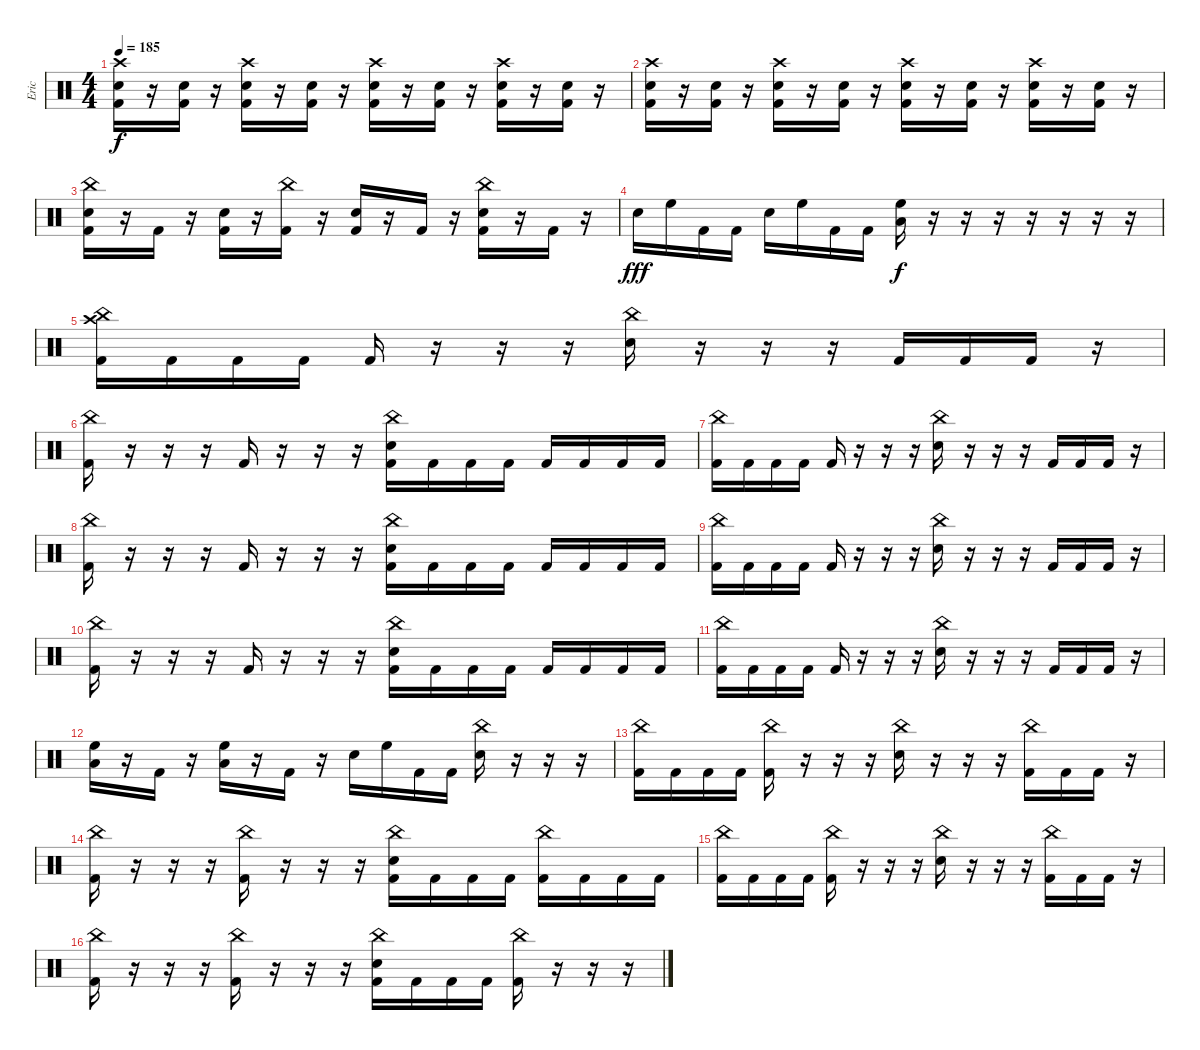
\track ("Eric" "Eric") {instrument percussion}
\staff {score}
\articulation defaults
\ts (4 4)
\tempo 185
\clef neutral
\ks c
("Crash high (hit)" "Electric Snare (hit)" "Kick (hit) 2").16{dy f} r.16 ("Electric Snare (hit)" "Kick (hit) 2").16 r.16 ("Crash high (hit)" "Electric Snare (hit)" "Kick (hit) 2").16 r.16 ("Electric Snare (hit)" "Kick (hit) 2").16 r.16 ("Crash high (hit)" "Electric Snare (hit)" "Kick (hit) 2").16 r.16 ("Electric Snare (hit)" "Kick (hit) 2").16 r.16 ("Crash high (hit)" "Electric Snare (hit)" "Kick (hit) 2").16 r.16 ("Electric Snare (hit)" "Kick (hit) 2").16 r.16 |
("Crash high (hit)" "Electric Snare (hit)" "Kick (hit) 2").16 r.16 ("Electric Snare (hit)" "Kick (hit) 2").16 r.16 ("Crash high (hit)" "Electric Snare (hit)" "Kick (hit) 2").16 r.16 ("Electric Snare (hit)" "Kick (hit) 2").16 r.16 ("Crash high (hit)" "Electric Snare (hit)" "Kick (hit) 2").16 r.16 ("Electric Snare (hit)" "Kick (hit) 2").16 r.16 ("Crash high (hit)" "Electric Snare (hit)" "Kick (hit) 2").16 r.16 ("Electric Snare (hit)" "Kick (hit) 2").16 r.16 |
("China (hit)" "Electric Snare (hit)" "Kick (hit) 2").16 r.16 "Kick (hit) 2".16 r.16 ("Electric Snare (hit)" "Kick (hit) 2").16 r.16 ("China (hit)" "Kick (hit) 2").16 r.16 ("Electric Snare (hit)" "Kick (hit) 2").16 r.16 "Kick (hit) 2".16 r.16 ("China (hit)" "Electric Snare (hit)" "Kick (hit) 2").16 r.16 "Kick (hit) 2".16 r.16 |
"Electric Snare (hit)".16{dy fff} "High Floor Tom (hit)".16 "Kick (hit) 2".16 "Kick (hit) 2".16 "Electric Snare (hit)".16 "High Floor Tom (hit)".16 "Kick (hit) 2".16 "Kick (hit) 2".16 ("High Floor Tom (hit)" "Low Floor Tom (hit)").16{dy f} r.16 r.16 r.16 r.16 r.16 r.16 r.16 |
("China (hit)" "Crash high (hit)" "Kick (hit) 2").16 "Kick (hit) 2".16 "Kick (hit) 2".16 "Kick (hit) 2".16 "Kick (hit) 2".16 r.16 r.16 r.16 ("China (hit)" "Electric Snare (hit)").16 r.16 r.16 r.16 "Kick (hit) 2".16 "Kick (hit) 2".16 "Kick (hit) 2".16 r.16 |
("China (hit)" "Kick (hit) 2").16 r.16 r.16 r.16 "Kick (hit) 2".16 r.16 r.16 r.16 ("China (hit)" "Electric Snare (hit)" "Kick (hit) 2").16 "Kick (hit) 2".16 "Kick (hit) 2".16 "Kick (hit) 2".16 "Kick (hit) 2".16 "Kick (hit) 2".16 "Kick (hit) 2".16 "Kick (hit) 2".16 |
("China (hit)" "Kick (hit) 2").16 "Kick (hit) 2".16 "Kick (hit) 2".16 "Kick (hit) 2".16 "Kick (hit) 2".16 r.16 r.16 r.16 ("China (hit)" "Electric Snare (hit)").16 r.16 r.16 r.16 "Kick (hit) 2".16 "Kick (hit) 2".16 "Kick (hit) 2".16 r.16 |
("China (hit)" "Kick (hit) 2").16 r.16 r.16 r.16 "Kick (hit) 2".16 r.16 r.16 r.16 ("China (hit)" "Electric Snare (hit)" "Kick (hit) 2").16 "Kick (hit) 2".16 "Kick (hit) 2".16 "Kick (hit) 2".16 "Kick (hit) 2".16 "Kick (hit) 2".16 "Kick (hit) 2".16 "Kick (hit) 2".16 |
("China (hit)" "Kick (hit) 2").16 "Kick (hit) 2".16 "Kick (hit) 2".16 "Kick (hit) 2".16 "Kick (hit) 2".16 r.16 r.16 r.16 ("China (hit)" "Electric Snare (hit)").16 r.16 r.16 r.16 "Kick (hit) 2".16 "Kick (hit) 2".16 "Kick (hit) 2".16 r.16 |
("China (hit)" "Kick (hit) 2").16 r.16 r.16 r.16 "Kick (hit) 2".16 r.16 r.16 r.16 ("China (hit)" "Electric Snare (hit)" "Kick (hit) 2").16 "Kick (hit) 2".16 "Kick (hit) 2".16 "Kick (hit) 2".16 "Kick (hit) 2".16 "Kick (hit) 2".16 "Kick (hit) 2".16 "Kick (hit) 2".16 |
("China (hit)" "Kick (hit) 2").16 "Kick (hit) 2".16 "Kick (hit) 2".16 "Kick (hit) 2".16 "Kick (hit) 2".16 r.16 r.16 r.16 ("China (hit)" "Electric Snare (hit)").16 r.16 r.16 r.16 "Kick (hit) 2".16 "Kick (hit) 2".16 "Kick (hit) 2".16 r.16 |
("High Floor Tom (hit)" "Low Floor Tom (hit)").16 r.16 "Kick (hit) 2".16 r.16 ("High Floor Tom (hit)" "Low Floor Tom (hit)").16 r.16 "Kick (hit) 2".16 r.16 "Electric Snare (hit)".16 "High Floor Tom (hit)".16 "Kick (hit) 2".16 "Kick (hit) 2".16 ("China (hit)" "Electric Snare (hit)").16 r.16 r.16 r.16 |
("China (hit)" "Kick (hit) 2").16 "Kick (hit) 2".16 "Kick (hit) 2".16 "Kick (hit) 2".16 ("China (hit)" "Kick (hit) 2").16 r.16 r.16 r.16 ("China (hit)" "Electric Snare (hit)").16 r.16 r.16 r.16 ("China (hit)" "Kick (hit) 2").16 "Kick (hit) 2".16 "Kick (hit) 2".16 r.16 |
("China (hit)" "Kick (hit) 2").16 r.16 r.16 r.16 ("China (hit)" "Kick (hit) 2").16 r.16 r.16 r.16 ("China (hit)" "Electric Snare (hit)" "Kick (hit) 2").16 "Kick (hit) 2".16 "Kick (hit) 2".16 "Kick (hit) 2".16 ("China (hit)" "Kick (hit) 2").16 "Kick (hit) 2".16 "Kick (hit) 2".16 "Kick (hit) 2".16 |
("China (hit)" "Kick (hit) 2").16 "Kick (hit) 2".16 "Kick (hit) 2".16 "Kick (hit) 2".16 ("China (hit)" "Kick (hit) 2").16 r.16 r.16 r.16 ("China (hit)" "Electric Snare (hit)").16 r.16 r.16 r.16 ("China (hit)" "Kick (hit) 2").16 "Kick (hit) 2".16 "Kick (hit) 2".16 r.16 |
("China (hit)" "Kick (hit) 2").16 r.16 r.16 r.16 ("China (hit)" "Kick (hit) 2").16 r.16 r.16 r.16 ("China (hit)" "Electric Snare (hit)" "Kick (hit) 2").16 "Kick (hit) 2".16 "Kick (hit) 2".16 "Kick (hit) 2".16 ("China (hit)" "Kick (hit) 2").16 r.16 r.16 r.16
